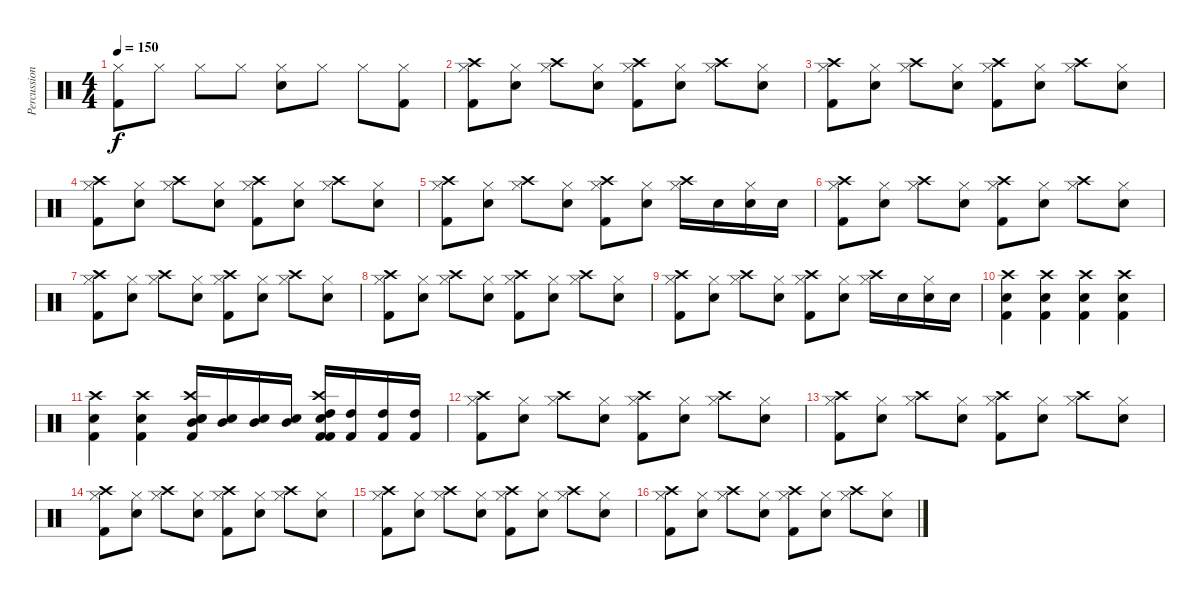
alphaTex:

\track ("Percussion" "Percussion") {instrument percussion}
\staff {score}
\articulation defaults
\ts (4 4)
\tempo 150
\clef neutral
\ks c
("Hi-Hat (closed)" "Kick (hit) 2").8{dy f} "Hi-Hat (closed)".8 "Hi-Hat (closed)".8 "Hi-Hat (closed)".8 ("Hi-Hat (closed)" "Electric Snare (hit)").8 "Hi-Hat (closed)".8 "Hi-Hat (closed)".8 ("Hi-Hat (closed)" "Kick (hit) 2").8 |
("Hi-Hat (closed)" "Kick (hit) 2" "Crash high (hit)").8 ("Hi-Hat (closed)" "Electric Snare (hit)").8 ("Hi-Hat (closed)" "Crash high (hit)").8 ("Hi-Hat (closed)" "Electric Snare (hit)").8 ("Hi-Hat (closed)" "Kick (hit) 2" "Crash high (hit)").8 ("Hi-Hat (closed)" "Electric Snare (hit)").8 ("Hi-Hat (closed)" "Crash high (hit)").8 ("Hi-Hat (closed)" "Electric Snare (hit)").8 |
("Hi-Hat (closed)" "Kick (hit) 2" "Crash high (hit)").8 ("Hi-Hat (closed)" "Electric Snare (hit)").8 ("Hi-Hat (closed)" "Crash high (hit)").8 ("Hi-Hat (closed)" "Electric Snare (hit)").8 ("Hi-Hat (closed)" "Kick (hit) 2" "Crash high (hit)").8 ("Hi-Hat (closed)" "Electric Snare (hit)").8 ("Hi-Hat (closed)" "Crash high (hit)").8 ("Hi-Hat (closed)" "Electric Snare (hit)").8 |
("Hi-Hat (closed)" "Kick (hit) 2" "Crash high (hit)").8 ("Hi-Hat (closed)" "Electric Snare (hit)").8 ("Hi-Hat (closed)" "Crash high (hit)").8 ("Hi-Hat (closed)" "Electric Snare (hit)").8 ("Hi-Hat (closed)" "Kick (hit) 2" "Crash high (hit)").8 ("Hi-Hat (closed)" "Electric Snare (hit)").8 ("Hi-Hat (closed)" "Crash high (hit)").8 ("Hi-Hat (closed)" "Electric Snare (hit)").8 |
("Hi-Hat (closed)" "Kick (hit) 2" "Crash high (hit)").8 ("Hi-Hat (closed)" "Electric Snare (hit)").8 ("Hi-Hat (closed)" "Crash high (hit)").8 ("Hi-Hat (closed)" "Electric Snare (hit)").8 ("Hi-Hat (closed)" "Kick (hit) 2" "Crash high (hit)").8 ("Hi-Hat (closed)" "Electric Snare (hit)").8 ("Hi-Hat (closed)" "Crash high (hit)").16 "Electric Snare (hit)".16 ("Hi-Hat (closed)" "Electric Snare (hit)").16 "Electric Snare (hit)".16 |
("Hi-Hat (closed)" "Kick (hit) 2" "Crash high (hit)").8 ("Hi-Hat (closed)" "Electric Snare (hit)").8 ("Hi-Hat (closed)" "Crash high (hit)").8 ("Hi-Hat (closed)" "Electric Snare (hit)").8 ("Hi-Hat (closed)" "Kick (hit) 2" "Crash high (hit)").8 ("Hi-Hat (closed)" "Electric Snare (hit)").8 ("Hi-Hat (closed)" "Crash high (hit)").8 ("Hi-Hat (closed)" "Electric Snare (hit)").8 |
("Hi-Hat (closed)" "Kick (hit) 2" "Crash high (hit)").8 ("Hi-Hat (closed)" "Electric Snare (hit)").8 ("Hi-Hat (closed)" "Crash high (hit)").8 ("Hi-Hat (closed)" "Electric Snare (hit)").8 ("Hi-Hat (closed)" "Kick (hit) 2" "Crash high (hit)").8 ("Hi-Hat (closed)" "Electric Snare (hit)").8 ("Hi-Hat (closed)" "Crash high (hit)").8 ("Hi-Hat (closed)" "Electric Snare (hit)").8 |
("Hi-Hat (closed)" "Kick (hit) 2" "Crash high (hit)").8 ("Hi-Hat (closed)" "Electric Snare (hit)").8 ("Hi-Hat (closed)" "Crash high (hit)").8 ("Hi-Hat (closed)" "Electric Snare (hit)").8 ("Hi-Hat (closed)" "Kick (hit) 2" "Crash high (hit)").8 ("Hi-Hat (closed)" "Electric Snare (hit)").8 ("Hi-Hat (closed)" "Crash high (hit)").8 ("Hi-Hat (closed)" "Electric Snare (hit)").8 |
("Hi-Hat (closed)" "Kick (hit) 2" "Crash high (hit)").8 ("Hi-Hat (closed)" "Electric Snare (hit)").8 ("Hi-Hat (closed)" "Crash high (hit)").8 ("Hi-Hat (closed)" "Electric Snare (hit)").8 ("Hi-Hat (closed)" "Kick (hit) 2" "Crash high (hit)").8 ("Hi-Hat (closed)" "Electric Snare (hit)").8 ("Hi-Hat (closed)" "Crash high (hit)").16 "Electric Snare (hit)".16 ("Hi-Hat (closed)" "Electric Snare (hit)").16 "Electric Snare (hit)".16 |
("Crash high (hit)" "Electric Snare (hit)" "Kick (hit) 2").4 ("Crash high (hit)" "Electric Snare (hit)" "Kick (hit) 2").4 ("Crash high (hit)" "Electric Snare (hit)" "Kick (hit) 2").4 ("Crash high (hit)" "Electric Snare (hit)" "Kick (hit) 2").4 |
("Crash high (hit)" "Electric Snare (hit)" "Kick (hit) 2").4 ("Crash high (hit)" "Electric Snare (hit)" "Kick (hit) 2").4 ("Crash high (hit)" "Electric Snare (hit)" "Kick (hit) 2" "Electric Snare (hit)" "Mid Tom (hit)").16 ("Electric Snare (hit)" "Mid Tom (hit)").16 ("Electric Snare (hit)" "Mid Tom (hit)").16 ("Electric Snare (hit)" "Mid Tom (hit)").16 ("Crash high (hit)" "Electric Snare (hit)" "Kick (hit) 2" "Kick (hit) 2" "High Tom (hit)").16 ("Kick (hit) 2" "High Tom (hit)").16 ("Kick (hit) 2" "High Tom (hit)").16 ("Kick (hit) 2" "High Tom (hit)").16 |
("Hi-Hat (closed)" "Kick (hit) 2" "Crash high (hit)").8 ("Hi-Hat (closed)" "Electric Snare (hit)").8 ("Hi-Hat (closed)" "Crash high (hit)").8 ("Hi-Hat (closed)" "Electric Snare (hit)").8 ("Hi-Hat (closed)" "Kick (hit) 2" "Crash high (hit)").8 ("Hi-Hat (closed)" "Electric Snare (hit)").8 ("Hi-Hat (closed)" "Crash high (hit)").8 ("Hi-Hat (closed)" "Electric Snare (hit)").8 |
("Hi-Hat (closed)" "Kick (hit) 2" "Crash high (hit)").8 ("Hi-Hat (closed)" "Electric Snare (hit)").8 ("Hi-Hat (closed)" "Crash high (hit)").8 ("Hi-Hat (closed)" "Electric Snare (hit)").8 ("Hi-Hat (closed)" "Kick (hit) 2" "Crash high (hit)").8 ("Hi-Hat (closed)" "Electric Snare (hit)").8 ("Hi-Hat (closed)" "Crash high (hit)").8 ("Hi-Hat (closed)" "Electric Snare (hit)").8 |
("Hi-Hat (closed)" "Kick (hit) 2" "Crash high (hit)").8 ("Hi-Hat (closed)" "Electric Snare (hit)").8 ("Hi-Hat (closed)" "Crash high (hit)").8 ("Hi-Hat (closed)" "Electric Snare (hit)").8 ("Hi-Hat (closed)" "Kick (hit) 2" "Crash high (hit)").8 ("Hi-Hat (closed)" "Electric Snare (hit)").8 ("Hi-Hat (closed)" "Crash high (hit)").8 ("Hi-Hat (closed)" "Electric Snare (hit)").8 |
("Hi-Hat (closed)" "Kick (hit) 2" "Crash high (hit)").8 ("Hi-Hat (closed)" "Electric Snare (hit)").8 ("Hi-Hat (closed)" "Crash high (hit)").8 ("Hi-Hat (closed)" "Electric Snare (hit)").8 ("Hi-Hat (closed)" "Kick (hit) 2" "Crash high (hit)").8 ("Hi-Hat (closed)" "Electric Snare (hit)").8 ("Hi-Hat (closed)" "Crash high (hit)").8 ("Hi-Hat (closed)" "Electric Snare (hit)").8 |
("Hi-Hat (closed)" "Kick (hit) 2" "Crash high (hit)").8 ("Hi-Hat (closed)" "Electric Snare (hit)").8 ("Hi-Hat (closed)" "Crash high (hit)").8 ("Hi-Hat (closed)" "Electric Snare (hit)").8 ("Hi-Hat (closed)" "Kick (hit) 2" "Crash high (hit)").8 ("Hi-Hat (closed)" "Electric Snare (hit)").8 ("Hi-Hat (closed)" "Crash high (hit)").8 ("Hi-Hat (closed)" "Electric Snare (hit)").8
